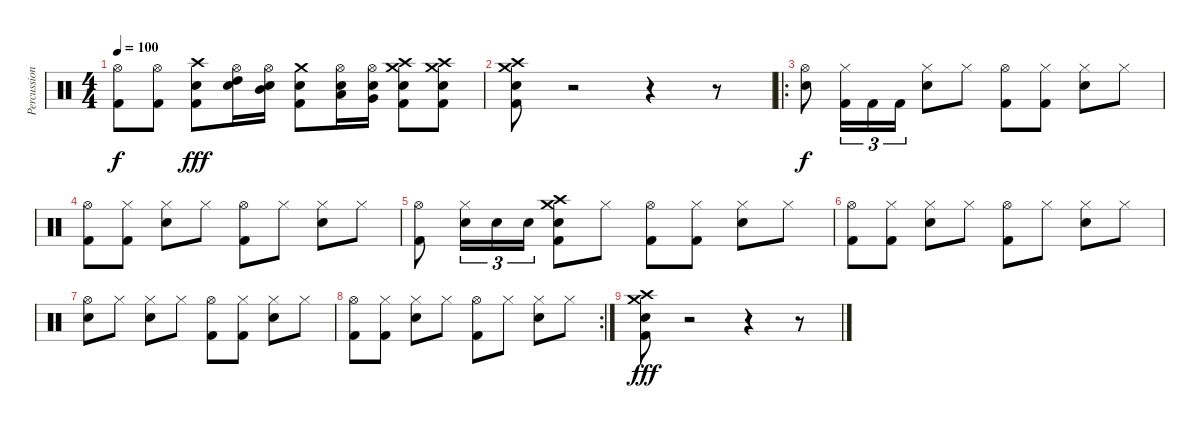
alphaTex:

\track ("Percussions" "Percussion") {instrument percussion}
\staff {score}
\articulation defaults
\ts (4 4)
\tempo 100
\clef neutral
\ks c
("Hi-Hat (open)" "Kick (hit) 2").8{dy f} ("Hi-Hat (open)" "Kick (hit) 2").8 ("Crash high (hit)" "Snare (hit) 2" "Kick (hit) 2").8{dy fff} ("Hi-Hat (open)" "High Tom (hit)" "Snare (hit) 2").16 ("Hi-Hat (open)" "Mid Tom (hit)" "Snare (hit) 2").16 ("Crash medium (hit)" "Snare (hit) 2" "Kick (hit) 2").8 ("Hi-Hat (open)" "Low Tom (hit)" "Snare (hit) 2").16 ("Hi-Hat (open)" "Very Low Tom (hit)" "Snare (hit) 2").16 ("Crash high (hit)" "Crash medium (hit)" "Snare (hit) 2" "Kick (hit) 2").8 ("Crash medium (hit)" "Crash high (hit)" "Snare (hit) 2" "Kick (hit) 2").8 |
("Crash medium (hit)" "Crash high (hit)" "Snare (hit) 2" "Kick (hit) 2").8 r.2 r.4 r.8 |
\ro
("Hi-Hat (open)" "Snare (hit) 2").8{dy f} ("Hi-Hat (closed)" "Kick (hit) 2").16{tu (3 2)} "Kick (hit) 2".16{tu (3 2)} "Kick (hit) 2".16{tu (3 2)} ("Hi-Hat (closed)" "Snare (hit) 2").8 "Hi-Hat (closed)".8 ("Hi-Hat (open)" "Kick (hit) 2").8 ("Hi-Hat (closed)" "Kick (hit) 2").8 ("Hi-Hat (closed)" "Snare (hit) 2").8 "Hi-Hat (closed)".8 |
("Hi-Hat (open)" "Kick (hit) 2").8 ("Hi-Hat (closed)" "Kick (hit) 2").8 ("Hi-Hat (closed)" "Snare (hit) 2").8 "Hi-Hat (closed)".8 ("Hi-Hat (open)" "Kick (hit) 2").8 "Hi-Hat (closed)".8 ("Hi-Hat (closed)" "Snare (hit) 2").8 "Hi-Hat (closed)".8 |
("Hi-Hat (open)" "Kick (hit) 2").8 ("Hi-Hat (closed)" "Snare (hit) 2").16{tu (3 2)} "Snare (hit) 2".16{tu (3 2)} "Snare (hit) 2".16{tu (3 2)} ("Crash high (hit)" "Crash medium (hit)" "Snare (hit) 2" "Kick (hit) 2").8 "Hi-Hat (closed)".8 ("Hi-Hat (open)" "Kick (hit) 2").8 ("Hi-Hat (closed)" "Kick (hit) 2").8 ("Hi-Hat (closed)" "Snare (hit) 2").8 "Hi-Hat (closed)".8 |
("Hi-Hat (open)" "Kick (hit) 2").8 ("Hi-Hat (closed)" "Kick (hit) 2").8 ("Hi-Hat (closed)" "Snare (hit) 2").8 "Hi-Hat (closed)".8 ("Hi-Hat (open)" "Kick (hit) 2").8 "Hi-Hat (closed)".8 ("Hi-Hat (closed)" "Snare (hit) 2").8 "Hi-Hat (closed)".8 |
("Hi-Hat (open)" "Snare (hit) 2").8 "Hi-Hat (closed)".8 ("Hi-Hat (closed)" "Snare (hit) 2").8 "Hi-Hat (closed)".8 ("Hi-Hat (open)" "Kick (hit) 2").8 ("Hi-Hat (closed)" "Kick (hit) 2").8 ("Hi-Hat (closed)" "Snare (hit) 2").8 "Hi-Hat (closed)".8 |
\rc 2
("Hi-Hat (open)" "Kick (hit) 2").8 ("Hi-Hat (closed)" "Kick (hit) 2").8 ("Hi-Hat (closed)" "Snare (hit) 2").8 "Hi-Hat (closed)".8 ("Hi-Hat (open)" "Kick (hit) 2").8 "Hi-Hat (closed)".8 ("Hi-Hat (closed)" "Snare (hit) 2").8 "Hi-Hat (closed)".8 |
("Crash medium (hit)" "Crash high (hit)" "Snare (hit) 2" "Kick (hit) 2").8{dy fff} r.2 r.4 r.8
